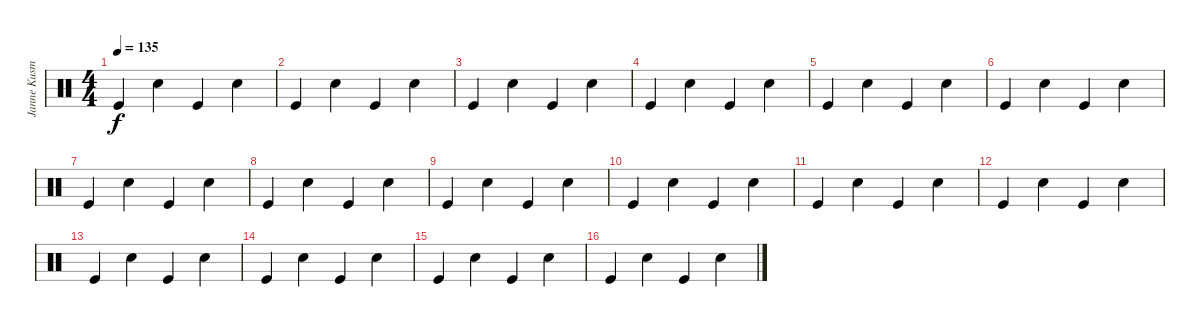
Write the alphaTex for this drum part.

\track ("Janne Kusmin" "Janne Kusm") {instrument percussion}
\staff {score}
\articulation defaults
\ts (4 4)
\tempo 135
\clef neutral
\ks c "Kick (hit)".4{dy f} "Electric Snare (hit)".4 "Kick (hit)".4 "Electric Snare (hit)".4
|
"Kick (hit)".4 "Electric Snare (hit)".4 "Kick (hit)".4 "Electric Snare (hit)".4 |
"Kick (hit)".4 "Electric Snare (hit)".4 "Kick (hit)".4 "Electric Snare (hit)".4 |
"Kick (hit)".4 "Electric Snare (hit)".4 "Kick (hit)".4 "Electric Snare (hit)".4 |
"Kick (hit)".4 "Electric Snare (hit)".4 "Kick (hit)".4 "Electric Snare (hit)".4 |
"Kick (hit)".4 "Electric Snare (hit)".4 "Kick (hit)".4 "Electric Snare (hit)".4 |
"Kick (hit)".4 "Electric Snare (hit)".4 "Kick (hit)".4 "Electric Snare (hit)".4 |
"Kick (hit)".4 "Electric Snare (hit)".4 "Kick (hit)".4 "Electric Snare (hit)".4 |
"Kick (hit)".4 "Electric Snare (hit)".4 "Kick (hit)".4 "Electric Snare (hit)".4 |
"Kick (hit)".4 "Electric Snare (hit)".4 "Kick (hit)".4 "Electric Snare (hit)".4 |
"Kick (hit)".4 "Electric Snare (hit)".4 "Kick (hit)".4 "Electric Snare (hit)".4 |
"Kick (hit)".4 "Electric Snare (hit)".4 "Kick (hit)".4 "Electric Snare (hit)".4 |
"Kick (hit)".4 "Electric Snare (hit)".4 "Kick (hit)".4 "Electric Snare (hit)".4 |
"Kick (hit)".4 "Electric Snare (hit)".4 "Kick (hit)".4 "Electric Snare (hit)".4 |
"Kick (hit)".4 "Electric Snare (hit)".4 "Kick (hit)".4 "Electric Snare (hit)".4 |
"Kick (hit)".4 "Electric Snare (hit)".4 "Kick (hit)".4 "Electric Snare (hit)".4
